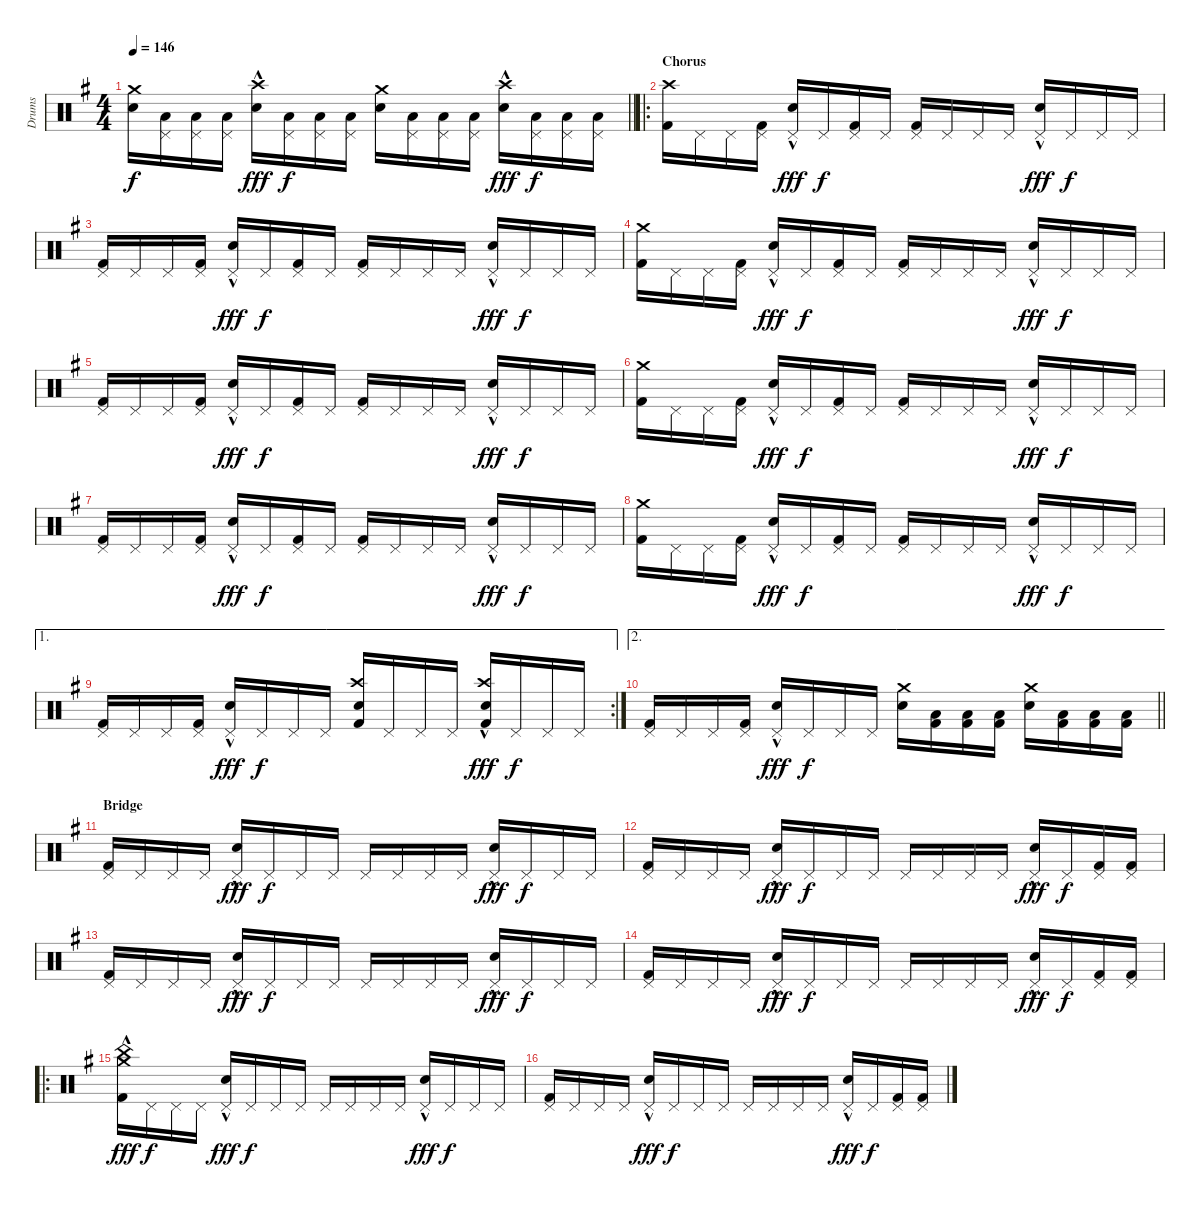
\track ("Drums" "Drums") {instrument percussion}
\staff {score}
\articulation defaults
\ts (4 4)
\tempo 146
\clef neutral
\barLineRight lightlight
\ks eminor
("Crash medium (hit)" "Snare (hit) 2").16{dy f} ("Pedal Hi-Hat (hit)" "Low Floor Tom (hit)").16 ("Pedal Hi-Hat (hit)" "Low Floor Tom (hit)").16 ("Pedal Hi-Hat (hit)" "Low Floor Tom (hit)").16 ("Crash high (hit)"{hac} "Snare (hit) 2").16{dy fff} ("Pedal Hi-Hat (hit)" "Low Floor Tom (hit)").16{dy f} ("Pedal Hi-Hat (hit)" "Low Floor Tom (hit)").16 ("Pedal Hi-Hat (hit)" "Low Floor Tom (hit)").16 ("Crash medium (hit)" "Snare (hit) 2").16 ("Pedal Hi-Hat (hit)" "Low Floor Tom (hit)").16 ("Pedal Hi-Hat (hit)" "Low Floor Tom (hit)").16 ("Pedal Hi-Hat (hit)" "Low Floor Tom (hit)").16 ("Crash high (hit)"{hac} "Snare (hit) 2").16{dy fff} ("Pedal Hi-Hat (hit)" "Low Floor Tom (hit)").16{dy f} ("Pedal Hi-Hat (hit)" "Low Floor Tom (hit)").16 ("Pedal Hi-Hat (hit)" "Low Floor Tom (hit)").16 |
\ro
\section ("" "Chorus")
("Crash high (hit)" "Kick (hit) 2").16 "Pedal Hi-Hat (hit)".16 "Pedal Hi-Hat (hit)".16 ("Pedal Hi-Hat (hit)" "Kick (hit) 2").16 ("Pedal Hi-Hat (hit)"{hac} "Snare (hit) 2").16{dy fff} "Pedal Hi-Hat (hit)".16{dy f} ("Pedal Hi-Hat (hit)" "Kick (hit) 2").16 "Pedal Hi-Hat (hit)".16 ("Pedal Hi-Hat (hit)" "Kick (hit) 2").16 "Pedal Hi-Hat (hit)".16 "Pedal Hi-Hat (hit)".16 "Pedal Hi-Hat (hit)".16 ("Pedal Hi-Hat (hit)"{hac} "Snare (hit) 2").16{dy fff} "Pedal Hi-Hat (hit)".16{dy f} "Pedal Hi-Hat (hit)".16 "Pedal Hi-Hat (hit)".16 |
("Pedal Hi-Hat (hit)" "Kick (hit) 2").16 "Pedal Hi-Hat (hit)".16 "Pedal Hi-Hat (hit)".16 ("Pedal Hi-Hat (hit)" "Kick (hit) 2").16 ("Pedal Hi-Hat (hit)"{hac} "Snare (hit) 2").16{dy fff} "Pedal Hi-Hat (hit)".16{dy f} ("Pedal Hi-Hat (hit)" "Kick (hit) 2").16 "Pedal Hi-Hat (hit)".16 ("Pedal Hi-Hat (hit)" "Kick (hit) 2").16 "Pedal Hi-Hat (hit)".16 "Pedal Hi-Hat (hit)".16 "Pedal Hi-Hat (hit)".16 ("Pedal Hi-Hat (hit)"{hac} "Snare (hit) 2").16{dy fff} "Pedal Hi-Hat (hit)".16{dy f} "Pedal Hi-Hat (hit)".16 "Pedal Hi-Hat (hit)".16 |
("Crash medium (hit)" "Kick (hit) 2").16 "Pedal Hi-Hat (hit)".16 "Pedal Hi-Hat (hit)".16 ("Pedal Hi-Hat (hit)" "Kick (hit) 2").16 ("Pedal Hi-Hat (hit)"{hac} "Snare (hit) 2").16{dy fff} "Pedal Hi-Hat (hit)".16{dy f} ("Pedal Hi-Hat (hit)" "Kick (hit) 2").16 "Pedal Hi-Hat (hit)".16 ("Pedal Hi-Hat (hit)" "Kick (hit) 2").16 "Pedal Hi-Hat (hit)".16 "Pedal Hi-Hat (hit)".16 "Pedal Hi-Hat (hit)".16 ("Pedal Hi-Hat (hit)"{hac} "Snare (hit) 2").16{dy fff} "Pedal Hi-Hat (hit)".16{dy f} "Pedal Hi-Hat (hit)".16 "Pedal Hi-Hat (hit)".16 |
("Pedal Hi-Hat (hit)" "Kick (hit) 2").16 "Pedal Hi-Hat (hit)".16 "Pedal Hi-Hat (hit)".16 ("Pedal Hi-Hat (hit)" "Kick (hit) 2").16 ("Pedal Hi-Hat (hit)"{hac} "Snare (hit) 2").16{dy fff} "Pedal Hi-Hat (hit)".16{dy f} ("Pedal Hi-Hat (hit)" "Kick (hit) 2").16 "Pedal Hi-Hat (hit)".16 ("Pedal Hi-Hat (hit)" "Kick (hit) 2").16 "Pedal Hi-Hat (hit)".16 "Pedal Hi-Hat (hit)".16 "Pedal Hi-Hat (hit)".16 ("Pedal Hi-Hat (hit)"{hac} "Snare (hit) 2").16{dy fff} "Pedal Hi-Hat (hit)".16{dy f} "Pedal Hi-Hat (hit)".16 "Pedal Hi-Hat (hit)".16 |
("Crash medium (hit)" "Kick (hit) 2").16 "Pedal Hi-Hat (hit)".16 "Pedal Hi-Hat (hit)".16 ("Pedal Hi-Hat (hit)" "Kick (hit) 2").16 ("Pedal Hi-Hat (hit)"{hac} "Snare (hit) 2").16{dy fff} "Pedal Hi-Hat (hit)".16{dy f} ("Pedal Hi-Hat (hit)" "Kick (hit) 2").16 "Pedal Hi-Hat (hit)".16 ("Pedal Hi-Hat (hit)" "Kick (hit) 2").16 "Pedal Hi-Hat (hit)".16 "Pedal Hi-Hat (hit)".16 "Pedal Hi-Hat (hit)".16 ("Pedal Hi-Hat (hit)"{hac} "Snare (hit) 2").16{dy fff} "Pedal Hi-Hat (hit)".16{dy f} "Pedal Hi-Hat (hit)".16 "Pedal Hi-Hat (hit)".16 |
("Pedal Hi-Hat (hit)" "Kick (hit) 2").16 "Pedal Hi-Hat (hit)".16 "Pedal Hi-Hat (hit)".16 ("Pedal Hi-Hat (hit)" "Kick (hit) 2").16 ("Pedal Hi-Hat (hit)"{hac} "Snare (hit) 2").16{dy fff} "Pedal Hi-Hat (hit)".16{dy f} ("Pedal Hi-Hat (hit)" "Kick (hit) 2").16 "Pedal Hi-Hat (hit)".16 ("Pedal Hi-Hat (hit)" "Kick (hit) 2").16 "Pedal Hi-Hat (hit)".16 "Pedal Hi-Hat (hit)".16 "Pedal Hi-Hat (hit)".16 ("Pedal Hi-Hat (hit)"{hac} "Snare (hit) 2").16{dy fff} "Pedal Hi-Hat (hit)".16{dy f} "Pedal Hi-Hat (hit)".16 "Pedal Hi-Hat (hit)".16 |
("Crash medium (hit)" "Kick (hit) 2").16 "Pedal Hi-Hat (hit)".16 "Pedal Hi-Hat (hit)".16 ("Pedal Hi-Hat (hit)" "Kick (hit) 2").16 ("Pedal Hi-Hat (hit)"{hac} "Snare (hit) 2").16{dy fff} "Pedal Hi-Hat (hit)".16{dy f} ("Pedal Hi-Hat (hit)" "Kick (hit) 2").16 "Pedal Hi-Hat (hit)".16 ("Pedal Hi-Hat (hit)" "Kick (hit) 2").16 "Pedal Hi-Hat (hit)".16 "Pedal Hi-Hat (hit)".16 "Pedal Hi-Hat (hit)".16 ("Pedal Hi-Hat (hit)"{hac} "Snare (hit) 2").16{dy fff} "Pedal Hi-Hat (hit)".16{dy f} "Pedal Hi-Hat (hit)".16 "Pedal Hi-Hat (hit)".16 |
\ae 1
\rc 2
("Pedal Hi-Hat (hit)" "Kick (hit) 2").16 "Pedal Hi-Hat (hit)".16 "Pedal Hi-Hat (hit)".16 ("Pedal Hi-Hat (hit)" "Kick (hit) 2").16 ("Pedal Hi-Hat (hit)"{hac} "Snare (hit) 2").16{dy fff} "Pedal Hi-Hat (hit)".16{dy f} "Pedal Hi-Hat (hit)".16 "Pedal Hi-Hat (hit)".16 ("Crash high (hit)" "Snare (hit) 2" "Kick (hit) 2").16 "Pedal Hi-Hat (hit)".16 "Pedal Hi-Hat (hit)".16 "Pedal Hi-Hat (hit)".16 ("Crash high (hit)"{hac} "Snare (hit) 2" "Kick (hit) 2").16{dy fff} "Pedal Hi-Hat (hit)".16{dy f} "Pedal Hi-Hat (hit)".16 "Pedal Hi-Hat (hit)".16 |
\ae 2
\barLineRight lightlight
("Pedal Hi-Hat (hit)" "Kick (hit) 2").16 "Pedal Hi-Hat (hit)".16 "Pedal Hi-Hat (hit)".16 ("Pedal Hi-Hat (hit)" "Kick (hit) 2").16 ("Pedal Hi-Hat (hit)"{hac} "Snare (hit) 2").16{dy fff} "Pedal Hi-Hat (hit)".16{dy f} "Pedal Hi-Hat (hit)".16 "Pedal Hi-Hat (hit)".16 ("Crash medium (hit)" "Snare (hit) 2").16 ("Low Floor Tom (hit)" "Kick (hit) 2").16 ("Low Floor Tom (hit)" "Kick (hit) 2").16 ("Low Floor Tom (hit)" "Kick (hit) 2").16 ("Crash medium (hit)" "Snare (hit) 2").16 ("Low Floor Tom (hit)" "Kick (hit) 2").16 ("Low Floor Tom (hit)" "Kick (hit) 2").16 ("Low Floor Tom (hit)" "Kick (hit) 2").16 |
\section ("" "Bridge")
("Pedal Hi-Hat (hit)" "Kick (hit) 2").16 "Pedal Hi-Hat (hit)".16 "Pedal Hi-Hat (hit)".16 "Pedal Hi-Hat (hit)".16 ("Pedal Hi-Hat (hit)"{hac} "Snare (hit) 2").16{dy fff} "Pedal Hi-Hat (hit)".16{dy f} "Pedal Hi-Hat (hit)".16 "Pedal Hi-Hat (hit)".16 "Pedal Hi-Hat (hit)".16 "Pedal Hi-Hat (hit)".16 "Pedal Hi-Hat (hit)".16 "Pedal Hi-Hat (hit)".16 ("Pedal Hi-Hat (hit)"{hac} "Snare (hit) 2").16{dy fff} "Pedal Hi-Hat (hit)".16{dy f} "Pedal Hi-Hat (hit)".16 "Pedal Hi-Hat (hit)".16 |
("Pedal Hi-Hat (hit)" "Kick (hit) 2").16 "Pedal Hi-Hat (hit)".16 "Pedal Hi-Hat (hit)".16 "Pedal Hi-Hat (hit)".16 ("Pedal Hi-Hat (hit)"{hac} "Snare (hit) 2").16{dy fff} "Pedal Hi-Hat (hit)".16{dy f} "Pedal Hi-Hat (hit)".16 "Pedal Hi-Hat (hit)".16 "Pedal Hi-Hat (hit)".16 "Pedal Hi-Hat (hit)".16 "Pedal Hi-Hat (hit)".16 "Pedal Hi-Hat (hit)".16 ("Pedal Hi-Hat (hit)"{hac} "Snare (hit) 2").16{dy fff} "Pedal Hi-Hat (hit)".16{dy f} ("Pedal Hi-Hat (hit)" "Kick (hit) 2").16 ("Pedal Hi-Hat (hit)" "Kick (hit) 2").16 |
("Pedal Hi-Hat (hit)" "Kick (hit) 2").16 "Pedal Hi-Hat (hit)".16 "Pedal Hi-Hat (hit)".16 "Pedal Hi-Hat (hit)".16 ("Pedal Hi-Hat (hit)"{hac} "Snare (hit) 2").16{dy fff} "Pedal Hi-Hat (hit)".16{dy f} "Pedal Hi-Hat (hit)".16 "Pedal Hi-Hat (hit)".16 "Pedal Hi-Hat (hit)".16 "Pedal Hi-Hat (hit)".16 "Pedal Hi-Hat (hit)".16 "Pedal Hi-Hat (hit)".16 ("Pedal Hi-Hat (hit)"{hac} "Snare (hit) 2").16{dy fff} "Pedal Hi-Hat (hit)".16{dy f} "Pedal Hi-Hat (hit)".16 "Pedal Hi-Hat (hit)".16 |
("Pedal Hi-Hat (hit)" "Kick (hit) 2").16 "Pedal Hi-Hat (hit)".16 "Pedal Hi-Hat (hit)".16 "Pedal Hi-Hat (hit)".16 ("Pedal Hi-Hat (hit)"{hac} "Snare (hit) 2").16{dy fff} "Pedal Hi-Hat (hit)".16{dy f} "Pedal Hi-Hat (hit)".16 "Pedal Hi-Hat (hit)".16 "Pedal Hi-Hat (hit)".16 "Pedal Hi-Hat (hit)".16 "Pedal Hi-Hat (hit)".16 "Pedal Hi-Hat (hit)".16 ("Pedal Hi-Hat (hit)"{hac} "Snare (hit) 2").16{dy fff} "Pedal Hi-Hat (hit)".16{dy f} ("Pedal Hi-Hat (hit)" "Kick (hit) 2").16 ("Pedal Hi-Hat (hit)" "Kick (hit) 2").16 |
\ro
("Crash medium (hit)" "China (hit)"{hac} "Kick (hit) 2").16{dy fff} "Pedal Hi-Hat (hit)".16{dy f} "Pedal Hi-Hat (hit)".16 "Pedal Hi-Hat (hit)".16 ("Pedal Hi-Hat (hit)"{hac} "Snare (hit) 2").16{dy fff} "Pedal Hi-Hat (hit)".16{dy f} "Pedal Hi-Hat (hit)".16 "Pedal Hi-Hat (hit)".16 "Pedal Hi-Hat (hit)".16 "Pedal Hi-Hat (hit)".16 "Pedal Hi-Hat (hit)".16 "Pedal Hi-Hat (hit)".16 ("Pedal Hi-Hat (hit)"{hac} "Snare (hit) 2").16{dy fff} "Pedal Hi-Hat (hit)".16{dy f} "Pedal Hi-Hat (hit)".16 "Pedal Hi-Hat (hit)".16 |
("Pedal Hi-Hat (hit)" "Kick (hit) 2").16 "Pedal Hi-Hat (hit)".16 "Pedal Hi-Hat (hit)".16 "Pedal Hi-Hat (hit)".16 ("Pedal Hi-Hat (hit)"{hac} "Snare (hit) 2").16{dy fff} "Pedal Hi-Hat (hit)".16{dy f} "Pedal Hi-Hat (hit)".16 "Pedal Hi-Hat (hit)".16 "Pedal Hi-Hat (hit)".16 "Pedal Hi-Hat (hit)".16 "Pedal Hi-Hat (hit)".16 "Pedal Hi-Hat (hit)".16 ("Pedal Hi-Hat (hit)"{hac} "Snare (hit) 2").16{dy fff} "Pedal Hi-Hat (hit)".16{dy f} ("Pedal Hi-Hat (hit)" "Kick (hit) 2").16 ("Pedal Hi-Hat (hit)" "Kick (hit) 2").16
